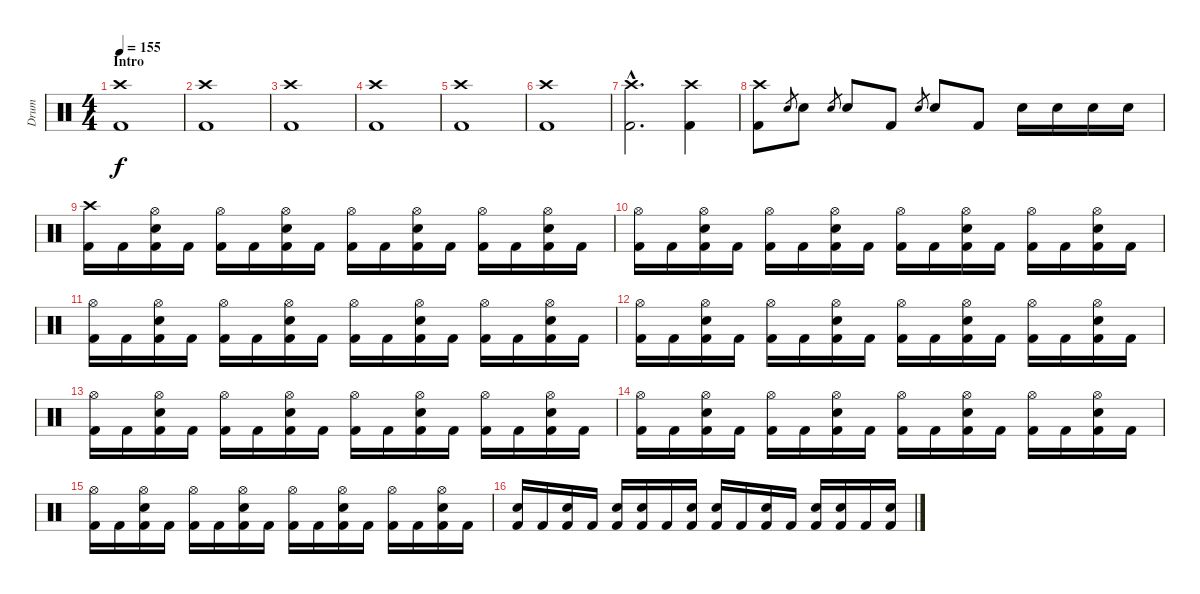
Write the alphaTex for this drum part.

\track ("Drum" "Drum") {instrument percussion}
\staff {score}
\articulation defaults
\ts (4 4)
\section ("" "Intro")
\tempo 155
\clef neutral
\ks c
("Crash high (hit)" "Kick (hit) 2").1{dy f} |
("Crash high (hit)" "Kick (hit) 2").1 |
("Crash high (hit)" "Kick (hit) 2").1 |
("Crash high (hit)" "Kick (hit) 2").1 |
("Crash high (hit)" "Kick (hit) 2").1 |
("Crash high (hit)" "Kick (hit) 2").1 |
("Crash high (hit)"{hac} "Kick (hit) 2"{hac}).2{d} ("Crash high (hit)" "Kick (hit) 2").4 |
("Crash high (hit)" "Kick (hit) 2").8 "Electric Snare (hit)".8{gr} "Electric Snare (hit)".8 "Electric Snare (hit)".8{gr} "Electric Snare (hit)".8 "Kick (hit) 2".8 "Electric Snare (hit)".8{gr} "Electric Snare (hit)".8 "Kick (hit) 2".8 "Electric Snare (hit)".16 "Electric Snare (hit)".16 "Electric Snare (hit)".16 "Electric Snare (hit)".16 |
("Crash high (hit)" "Kick (hit) 2").16 "Kick (hit) 2".16 ("Hi-Hat (open)" "Electric Snare (hit)" "Kick (hit) 2").16 "Kick (hit) 2".16 ("Hi-Hat (open)" "Kick (hit) 2").16 "Kick (hit) 2".16 ("Hi-Hat (open)" "Electric Snare (hit)" "Kick (hit) 2").16 "Kick (hit) 2".16 ("Hi-Hat (open)" "Kick (hit) 2").16 "Kick (hit) 2".16 ("Hi-Hat (open)" "Electric Snare (hit)" "Kick (hit) 2").16 "Kick (hit) 2".16 ("Hi-Hat (open)" "Kick (hit) 2").16 "Kick (hit) 2".16 ("Hi-Hat (open)" "Electric Snare (hit)" "Kick (hit) 2").16 "Kick (hit) 2".16 |
("Hi-Hat (open)" "Kick (hit) 2").16 "Kick (hit) 2".16 ("Hi-Hat (open)" "Electric Snare (hit)" "Kick (hit) 2").16 "Kick (hit) 2".16 ("Hi-Hat (open)" "Kick (hit) 2").16 "Kick (hit) 2".16 ("Hi-Hat (open)" "Electric Snare (hit)" "Kick (hit) 2").16 "Kick (hit) 2".16 ("Hi-Hat (open)" "Kick (hit) 2").16 "Kick (hit) 2".16 ("Hi-Hat (open)" "Electric Snare (hit)" "Kick (hit) 2").16 "Kick (hit) 2".16 ("Hi-Hat (open)" "Kick (hit) 2").16 "Kick (hit) 2".16 ("Hi-Hat (open)" "Electric Snare (hit)" "Kick (hit) 2").16 "Kick (hit) 2".16 |
("Hi-Hat (open)" "Kick (hit) 2").16 "Kick (hit) 2".16 ("Hi-Hat (open)" "Electric Snare (hit)" "Kick (hit) 2").16 "Kick (hit) 2".16 ("Hi-Hat (open)" "Kick (hit) 2").16 "Kick (hit) 2".16 ("Hi-Hat (open)" "Electric Snare (hit)" "Kick (hit) 2").16 "Kick (hit) 2".16 ("Hi-Hat (open)" "Kick (hit) 2").16 "Kick (hit) 2".16 ("Hi-Hat (open)" "Electric Snare (hit)" "Kick (hit) 2").16 "Kick (hit) 2".16 ("Hi-Hat (open)" "Kick (hit) 2").16 "Kick (hit) 2".16 ("Hi-Hat (open)" "Electric Snare (hit)" "Kick (hit) 2").16 "Kick (hit) 2".16 |
("Hi-Hat (open)" "Kick (hit) 2").16 "Kick (hit) 2".16 ("Hi-Hat (open)" "Electric Snare (hit)" "Kick (hit) 2").16 "Kick (hit) 2".16 ("Hi-Hat (open)" "Kick (hit) 2").16 "Kick (hit) 2".16 ("Hi-Hat (open)" "Electric Snare (hit)" "Kick (hit) 2").16 "Kick (hit) 2".16 ("Hi-Hat (open)" "Kick (hit) 2").16 "Kick (hit) 2".16 ("Hi-Hat (open)" "Electric Snare (hit)" "Kick (hit) 2").16 "Kick (hit) 2".16 ("Hi-Hat (open)" "Kick (hit) 2").16 "Kick (hit) 2".16 ("Hi-Hat (open)" "Electric Snare (hit)" "Kick (hit) 2").16 "Kick (hit) 2".16 |
("Hi-Hat (open)" "Kick (hit) 2").16 "Kick (hit) 2".16 ("Hi-Hat (open)" "Electric Snare (hit)" "Kick (hit) 2").16 "Kick (hit) 2".16 ("Hi-Hat (open)" "Kick (hit) 2").16 "Kick (hit) 2".16 ("Hi-Hat (open)" "Electric Snare (hit)" "Kick (hit) 2").16 "Kick (hit) 2".16 ("Hi-Hat (open)" "Kick (hit) 2").16 "Kick (hit) 2".16 ("Hi-Hat (open)" "Electric Snare (hit)" "Kick (hit) 2").16 "Kick (hit) 2".16 ("Hi-Hat (open)" "Kick (hit) 2").16 "Kick (hit) 2".16 ("Hi-Hat (open)" "Electric Snare (hit)" "Kick (hit) 2").16 "Kick (hit) 2".16 |
("Hi-Hat (open)" "Kick (hit) 2").16 "Kick (hit) 2".16 ("Hi-Hat (open)" "Electric Snare (hit)" "Kick (hit) 2").16 "Kick (hit) 2".16 ("Hi-Hat (open)" "Kick (hit) 2").16 "Kick (hit) 2".16 ("Hi-Hat (open)" "Electric Snare (hit)" "Kick (hit) 2").16 "Kick (hit) 2".16 ("Hi-Hat (open)" "Kick (hit) 2").16 "Kick (hit) 2".16 ("Hi-Hat (open)" "Electric Snare (hit)" "Kick (hit) 2").16 "Kick (hit) 2".16 ("Hi-Hat (open)" "Kick (hit) 2").16 "Kick (hit) 2".16 ("Hi-Hat (open)" "Electric Snare (hit)" "Kick (hit) 2").16 "Kick (hit) 2".16 |
("Hi-Hat (open)" "Kick (hit) 2").16 "Kick (hit) 2".16 ("Hi-Hat (open)" "Electric Snare (hit)" "Kick (hit) 2").16 "Kick (hit) 2".16 ("Hi-Hat (open)" "Kick (hit) 2").16 "Kick (hit) 2".16 ("Hi-Hat (open)" "Electric Snare (hit)" "Kick (hit) 2").16 "Kick (hit) 2".16 ("Hi-Hat (open)" "Kick (hit) 2").16 "Kick (hit) 2".16 ("Hi-Hat (open)" "Electric Snare (hit)" "Kick (hit) 2").16 "Kick (hit) 2".16 ("Hi-Hat (open)" "Kick (hit) 2").16 "Kick (hit) 2".16 ("Hi-Hat (open)" "Electric Snare (hit)" "Kick (hit) 2").16 "Kick (hit) 2".16 |
("Electric Snare (hit)" "Kick (hit) 2").16 "Kick (hit) 2".16 ("Electric Snare (hit)" "Kick (hit) 2").16 "Kick (hit) 2".16 ("Electric Snare (hit)" "Kick (hit) 2").16 ("Electric Snare (hit)" "Kick (hit) 2").16 "Kick (hit) 2".16 ("Electric Snare (hit)" "Kick (hit) 2").16 ("Electric Snare (hit)" "Kick (hit) 2").16 "Kick (hit) 2".16 ("Electric Snare (hit)" "Kick (hit) 2").16 "Kick (hit) 2".16 ("Electric Snare (hit)" "Kick (hit) 2").16 ("Electric Snare (hit)" "Kick (hit) 2").16 "Kick (hit) 2".16 ("Electric Snare (hit)" "Kick (hit) 2").16
